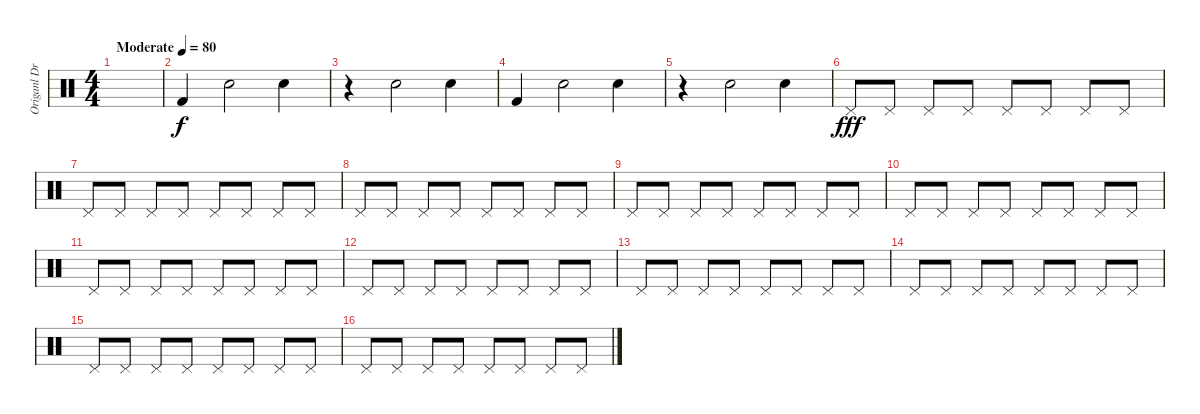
\track ("Origanl Drum Track" "Origanl Dr") {instrument percussion}
\staff {score}
\articulation defaults
\ts (4 4)
\tempo (80 "Moderate")
\clef neutral
\ks c
|
"Kick (hit) 2".4 "Hand Clap (hit)".2 "Hand Clap (hit)".4 |
r.4 "Hand Clap (hit)".2 "Hand Clap (hit)".4 |
"Kick (hit) 2".4 "Hand Clap (hit)".2 "Hand Clap (hit)".4 |
r.4 "Hand Clap (hit)".2 "Hand Clap (hit)".4 |
"Pedal Hi-Hat (hit)".8{dy fff} "Pedal Hi-Hat (hit)".8 "Pedal Hi-Hat (hit)".8 "Pedal Hi-Hat (hit)".8 "Pedal Hi-Hat (hit)".8 "Pedal Hi-Hat (hit)".8 "Pedal Hi-Hat (hit)".8 "Pedal Hi-Hat (hit)".8 |
"Pedal Hi-Hat (hit)".8 "Pedal Hi-Hat (hit)".8 "Pedal Hi-Hat (hit)".8 "Pedal Hi-Hat (hit)".8 "Pedal Hi-Hat (hit)".8 "Pedal Hi-Hat (hit)".8 "Pedal Hi-Hat (hit)".8 "Pedal Hi-Hat (hit)".8 |
"Pedal Hi-Hat (hit)".8 "Pedal Hi-Hat (hit)".8 "Pedal Hi-Hat (hit)".8 "Pedal Hi-Hat (hit)".8 "Pedal Hi-Hat (hit)".8 "Pedal Hi-Hat (hit)".8 "Pedal Hi-Hat (hit)".8 "Pedal Hi-Hat (hit)".8 |
"Pedal Hi-Hat (hit)".8 "Pedal Hi-Hat (hit)".8 "Pedal Hi-Hat (hit)".8 "Pedal Hi-Hat (hit)".8 "Pedal Hi-Hat (hit)".8 "Pedal Hi-Hat (hit)".8 "Pedal Hi-Hat (hit)".8 "Pedal Hi-Hat (hit)".8 |
"Pedal Hi-Hat (hit)".8 "Pedal Hi-Hat (hit)".8 "Pedal Hi-Hat (hit)".8 "Pedal Hi-Hat (hit)".8 "Pedal Hi-Hat (hit)".8 "Pedal Hi-Hat (hit)".8 "Pedal Hi-Hat (hit)".8 "Pedal Hi-Hat (hit)".8 |
"Pedal Hi-Hat (hit)".8 "Pedal Hi-Hat (hit)".8 "Pedal Hi-Hat (hit)".8 "Pedal Hi-Hat (hit)".8 "Pedal Hi-Hat (hit)".8 "Pedal Hi-Hat (hit)".8 "Pedal Hi-Hat (hit)".8 "Pedal Hi-Hat (hit)".8 |
"Pedal Hi-Hat (hit)".8 "Pedal Hi-Hat (hit)".8 "Pedal Hi-Hat (hit)".8 "Pedal Hi-Hat (hit)".8 "Pedal Hi-Hat (hit)".8 "Pedal Hi-Hat (hit)".8 "Pedal Hi-Hat (hit)".8 "Pedal Hi-Hat (hit)".8 |
"Pedal Hi-Hat (hit)".8 "Pedal Hi-Hat (hit)".8 "Pedal Hi-Hat (hit)".8 "Pedal Hi-Hat (hit)".8 "Pedal Hi-Hat (hit)".8 "Pedal Hi-Hat (hit)".8 "Pedal Hi-Hat (hit)".8 "Pedal Hi-Hat (hit)".8 |
"Pedal Hi-Hat (hit)".8 "Pedal Hi-Hat (hit)".8 "Pedal Hi-Hat (hit)".8 "Pedal Hi-Hat (hit)".8 "Pedal Hi-Hat (hit)".8 "Pedal Hi-Hat (hit)".8 "Pedal Hi-Hat (hit)".8 "Pedal Hi-Hat (hit)".8 |
"Pedal Hi-Hat (hit)".8 "Pedal Hi-Hat (hit)".8 "Pedal Hi-Hat (hit)".8 "Pedal Hi-Hat (hit)".8 "Pedal Hi-Hat (hit)".8 "Pedal Hi-Hat (hit)".8 "Pedal Hi-Hat (hit)".8 "Pedal Hi-Hat (hit)".8 |
"Pedal Hi-Hat (hit)".8 "Pedal Hi-Hat (hit)".8 "Pedal Hi-Hat (hit)".8 "Pedal Hi-Hat (hit)".8 "Pedal Hi-Hat (hit)".8 "Pedal Hi-Hat (hit)".8 "Pedal Hi-Hat (hit)".8 "Pedal Hi-Hat (hit)".8
